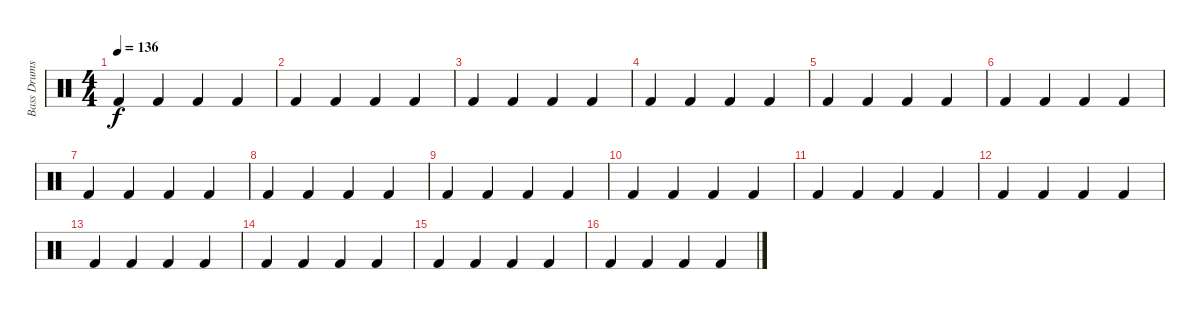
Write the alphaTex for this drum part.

\track ("Bass Drums" "Bass Drums") {instrument percussion}
\staff {score}
\articulation defaults
\ts (4 4)
\tempo 136
\clef neutral
\ks c "Kick (hit) 2".4{dy f} "Kick (hit) 2".4 "Kick (hit) 2".4 "Kick (hit) 2".4
|
"Kick (hit) 2".4 "Kick (hit) 2".4 "Kick (hit) 2".4 "Kick (hit) 2".4 |
"Kick (hit) 2".4 "Kick (hit) 2".4 "Kick (hit) 2".4 "Kick (hit) 2".4 |
"Kick (hit) 2".4 "Kick (hit) 2".4 "Kick (hit) 2".4 "Kick (hit) 2".4 |
"Kick (hit) 2".4 "Kick (hit) 2".4 "Kick (hit) 2".4 "Kick (hit) 2".4 |
"Kick (hit) 2".4 "Kick (hit) 2".4 "Kick (hit) 2".4 "Kick (hit) 2".4 |
"Kick (hit) 2".4 "Kick (hit) 2".4 "Kick (hit) 2".4 "Kick (hit) 2".4 |
"Kick (hit) 2".4 "Kick (hit) 2".4 "Kick (hit) 2".4 "Kick (hit) 2".4 |
"Kick (hit) 2".4 "Kick (hit) 2".4 "Kick (hit) 2".4 "Kick (hit) 2".4 |
"Kick (hit) 2".4 "Kick (hit) 2".4 "Kick (hit) 2".4 "Kick (hit) 2".4 |
"Kick (hit) 2".4 "Kick (hit) 2".4 "Kick (hit) 2".4 "Kick (hit) 2".4 |
"Kick (hit) 2".4 "Kick (hit) 2".4 "Kick (hit) 2".4 "Kick (hit) 2".4 |
"Kick (hit) 2".4 "Kick (hit) 2".4 "Kick (hit) 2".4 "Kick (hit) 2".4 |
"Kick (hit) 2".4 "Kick (hit) 2".4 "Kick (hit) 2".4 "Kick (hit) 2".4 |
"Kick (hit) 2".4 "Kick (hit) 2".4 "Kick (hit) 2".4 "Kick (hit) 2".4 |
"Kick (hit) 2".4 "Kick (hit) 2".4 "Kick (hit) 2".4 "Kick (hit) 2".4
